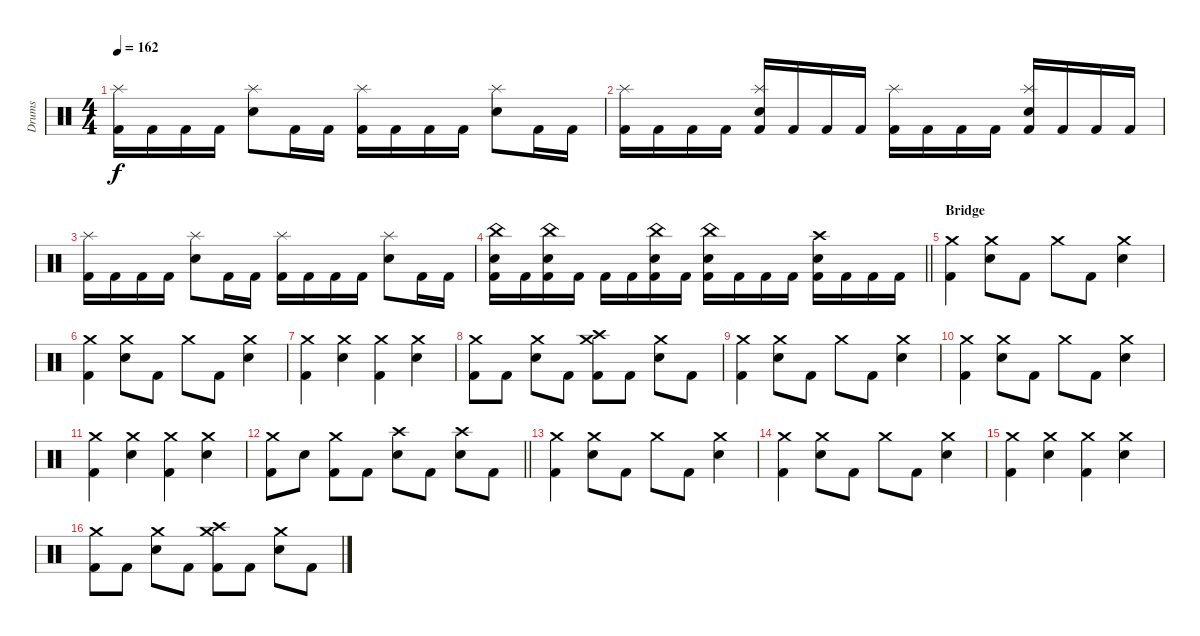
\track ("Drums" "Drums") {instrument percussion}
\staff {score}
\articulation defaults
\ts (4 4)
\tempo 162
\clef neutral
\ks c
("Kick (hit) 2" "Splash (hit)").16{dy f} "Kick (hit) 2".16 "Kick (hit) 2".16 "Kick (hit) 2".16 ("Snare (hit) 2" "Splash (hit)").8 "Kick (hit) 2".16 "Kick (hit) 2".16 ("Kick (hit) 2" "Splash (hit)").16 "Kick (hit) 2".16 "Kick (hit) 2".16 "Kick (hit) 2".16 ("Snare (hit) 2" "Splash (hit)").8 "Kick (hit) 2".16 "Kick (hit) 2".16 |
("Kick (hit) 2" "Splash (hit)").16 "Kick (hit) 2".16 "Kick (hit) 2".16 "Kick (hit) 2".16 ("Kick (hit) 2" "Snare (hit) 2" "Splash (hit)").16 "Kick (hit) 2".16 "Kick (hit) 2".16 "Kick (hit) 2".16 ("Kick (hit) 2" "Splash (hit)").16 "Kick (hit) 2".16 "Kick (hit) 2".16 "Kick (hit) 2".16 ("Kick (hit) 2" "Snare (hit) 2" "Splash (hit)").16 "Kick (hit) 2".16 "Kick (hit) 2".16 "Kick (hit) 2".16 |
("Kick (hit) 2" "Splash (hit)").16 "Kick (hit) 2".16 "Kick (hit) 2".16 "Kick (hit) 2".16 ("Snare (hit) 2" "Splash (hit)").8 "Kick (hit) 2".16 "Kick (hit) 2".16 ("Kick (hit) 2" "Splash (hit)").16 "Kick (hit) 2".16 "Kick (hit) 2".16 "Kick (hit) 2".16 ("Snare (hit) 2" "Splash (hit)").8 "Kick (hit) 2".16 "Kick (hit) 2".16 |
\barLineRight lightlight
("Kick (hit) 2" "Snare (hit) 2" "China (hit)").16 "Kick (hit) 2".16 ("Kick (hit) 2" "Snare (hit) 2" "China (hit)").16 "Kick (hit) 2".16 "Kick (hit) 2".16 "Kick (hit) 2".16 ("Kick (hit) 2" "Snare (hit) 2" "China (hit)").16 "Kick (hit) 2".16 ("Kick (hit) 2" "Snare (hit) 2" "China (hit)").16 "Kick (hit) 2".16 "Kick (hit) 2".16 "Kick (hit) 2".16 ("Kick (hit) 2" "Snare (hit) 2" "Crash high (hit)").16 "Kick (hit) 2".16 "Kick (hit) 2".16 "Kick (hit) 2".16 |
\section ("" "Bridge")
("Kick (hit) 2" "Crash medium (hit)").4 ("Snare (hit) 2" "Crash medium (hit)").8 "Kick (hit) 2".8 "Crash medium (hit)".8 "Kick (hit) 2".8 ("Snare (hit) 2" "Crash medium (hit)").4 |
("Kick (hit) 2" "Crash medium (hit)").4 ("Snare (hit) 2" "Crash medium (hit)").8 "Kick (hit) 2".8 "Crash medium (hit)".8 "Kick (hit) 2".8 ("Snare (hit) 2" "Crash medium (hit)").4 |
("Kick (hit) 2" "Crash medium (hit)").4 ("Snare (hit) 2" "Crash medium (hit)").4 ("Kick (hit) 2" "Crash medium (hit)").4 ("Snare (hit) 2" "Crash medium (hit)").4 |
("Kick (hit) 2" "Crash medium (hit)").8 "Kick (hit) 2".8 ("Snare (hit) 2" "Crash medium (hit)").8 "Kick (hit) 2".8 ("Kick (hit) 2" "Crash medium (hit)" "Crash high (hit)").8 "Kick (hit) 2".8 ("Snare (hit) 2" "Crash medium (hit)").8 "Kick (hit) 2".8 |
("Kick (hit) 2" "Crash medium (hit)").4 ("Snare (hit) 2" "Crash medium (hit)").8 "Kick (hit) 2".8 "Crash medium (hit)".8 "Kick (hit) 2".8 ("Snare (hit) 2" "Crash medium (hit)").4 |
("Kick (hit) 2" "Crash medium (hit)").4 ("Snare (hit) 2" "Crash medium (hit)").8 "Kick (hit) 2".8 "Crash medium (hit)".8 "Kick (hit) 2".8 ("Snare (hit) 2" "Crash medium (hit)").4 |
("Kick (hit) 2" "Crash medium (hit)").4 ("Snare (hit) 2" "Crash medium (hit)").4 ("Kick (hit) 2" "Crash medium (hit)").4 ("Snare (hit) 2" "Crash medium (hit)").4 |
\barLineRight lightlight
("Kick (hit) 2" "Crash medium (hit)").8 "Snare (hit) 2".8 ("Kick (hit) 2" "Crash medium (hit)").8 "Kick (hit) 2".8 ("Snare (hit) 2" "Crash high (hit)").8 "Kick (hit) 2".8 ("Snare (hit) 2" "Crash high (hit)").8 "Kick (hit) 2".8 |
\section ("" "")
("Kick (hit) 2" "Crash medium (hit)").4 ("Snare (hit) 2" "Crash medium (hit)").8 "Kick (hit) 2".8 "Crash medium (hit)".8 "Kick (hit) 2".8 ("Snare (hit) 2" "Crash medium (hit)").4 |
("Kick (hit) 2" "Crash medium (hit)").4 ("Snare (hit) 2" "Crash medium (hit)").8 "Kick (hit) 2".8 "Crash medium (hit)".8 "Kick (hit) 2".8 ("Snare (hit) 2" "Crash medium (hit)").4 |
("Kick (hit) 2" "Crash medium (hit)").4 ("Snare (hit) 2" "Crash medium (hit)").4 ("Kick (hit) 2" "Crash medium (hit)").4 ("Snare (hit) 2" "Crash medium (hit)").4 |
("Kick (hit) 2" "Crash medium (hit)").8 "Kick (hit) 2".8 ("Snare (hit) 2" "Crash medium (hit)").8 "Kick (hit) 2".8 ("Kick (hit) 2" "Crash medium (hit)" "Crash high (hit)").8 "Kick (hit) 2".8 ("Snare (hit) 2" "Crash medium (hit)").8 "Kick (hit) 2".8
